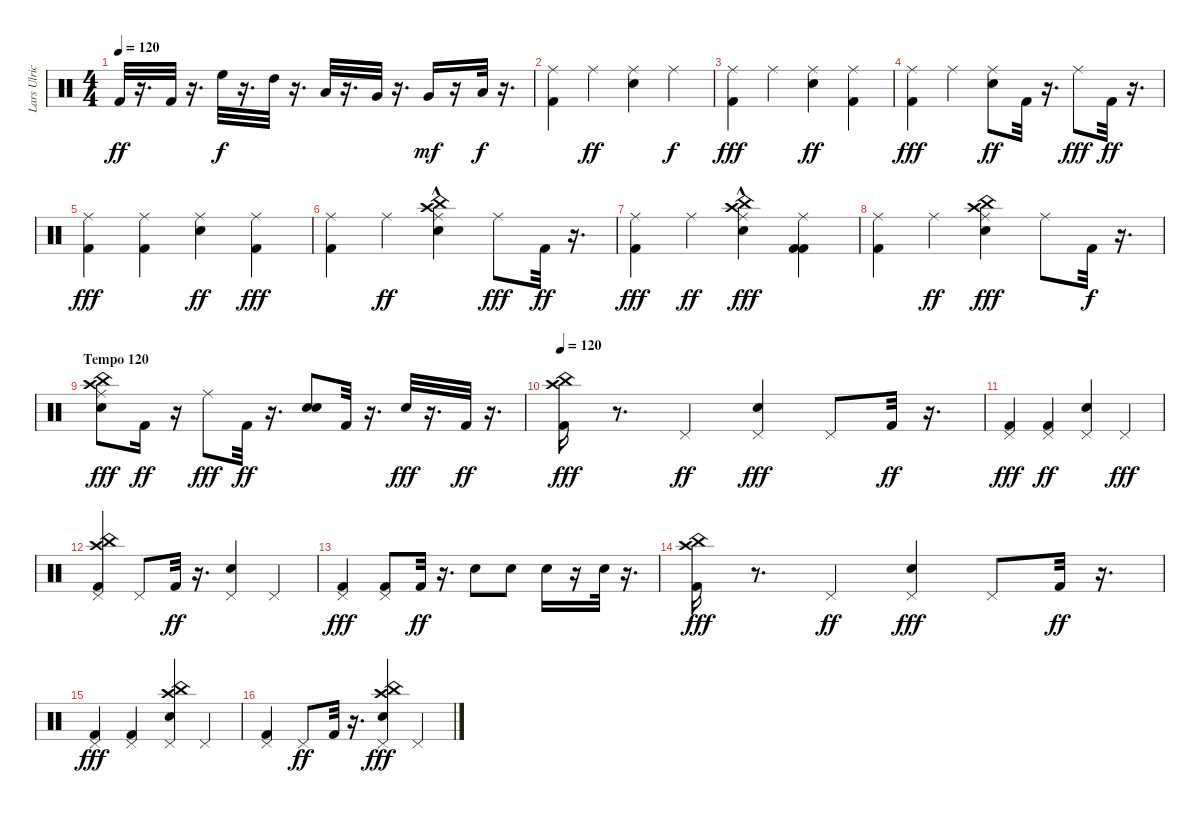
\track ("Lars Ulrich" "Lars Ulric") {instrument percussion}
\staff {score}
\articulation defaults
\ts (4 4)
\tempo 120
\clef neutral
\ks c "Kick (hit) 2".32{dy ff}
r.16{d} "Kick (hit) 2".32 r.16{d} "High Floor Tom (hit)".32{dy f} r.16{d} "High Tom (hit)".32 r.16{d} "Low Tom (hit)".32 r.16{d} "Very Low Tom (hit)".32 r.16{d} "Very Low Tom (hit)".16{dy mf} r.16 "Low Floor Tom (hit)".32{dy f} r.16{d} |
("Kick (hit) 2" "Ride (middle)").4 "Ride (middle)".4{dy ff} ("Snare (hit) 2" "Ride (middle)").4 "Ride (middle)".4{dy f} |
("Kick (hit) 2" "Ride (middle)").4{dy fff} "Ride (middle)".4 ("Snare (hit) 2" "Ride (middle)").4{dy ff} ("Kick (hit) 2" "Ride (middle)").4 |
("Kick (hit) 2" "Ride (middle)").4{dy fff} "Ride (middle)".4 ("Ride (middle)" "Snare (hit) 2").8{dy ff} "Kick (hit) 2".32 r.16{d} "Ride (middle)".8{dy fff} "Kick (hit) 2".32{dy ff} r.16{d} |
("Kick (hit) 2" "Ride (middle)").4{dy fff} ("Kick (hit) 2" "Ride (middle)").4 ("Snare (hit) 2" "Ride (middle)").4{dy ff} ("Kick (hit) 2" "Ride (middle)").4{dy fff} |
("Kick (hit) 2" "Ride (middle)").4 "Ride (middle)".4{dy ff} ("China (hit)"{hac} "Snare (hit) 2" "Ride (middle)" "Crash high (hit)").4 "Ride (middle)".8{dy fff} "Kick (hit) 2".32{dy ff} r.16{d} |
("Kick (hit) 2" "Ride (middle)").4{dy fff} "Ride (middle)".4{dy ff} ("Crash high (hit)"{hac} "China (hit)" "Snare (hit) 2" "Ride (middle)").4{dy fff} ("Kick (hit) 2" "Kick (hit) 2" "Ride (middle)").4 |
("Kick (hit) 2" "Ride (middle)").4 "Ride (middle)".4{dy ff} ("China (hit)" "Crash high (hit)" "Snare (hit) 2" "Ride (middle)").4{dy fff} "Ride (middle)".8 "Kick (hit) 2".32{dy f} r.16{d} |
\section ("" "Tempo 120")
("Snare (hit) 2" "Crash high (hit)" "China (hit)" "Ride (middle)").8{dy fff} "Kick (hit) 2".16{dy ff} r.16 "Ride (middle)".8{dy fff} "Kick (hit) 2".32{dy ff} r.16{d} ("Snare (hit) 2" "Snare (hit) 2").8 "Kick (hit) 2".32 r.16{d} "Snare (hit) 2".32{dy fff} r.16{d} "Kick (hit) 2".32{dy ff} r.16{d} |
\tempo 120
("China (hit)" "Crash high (hit)" "Kick (hit) 2").16{dy fff} r.8{d} "Pedal Hi-Hat (hit)".4{dy ff} ("Snare (hit) 2" "Pedal Hi-Hat (hit)").4{dy fff} "Pedal Hi-Hat (hit)".8 "Kick (hit) 2".32{dy ff} r.16{d} |
("Kick (hit) 2" "Pedal Hi-Hat (hit)").4{dy fff} ("Kick (hit) 2" "Pedal Hi-Hat (hit)").4{dy ff} ("Snare (hit) 2" "Pedal Hi-Hat (hit)").4 "Pedal Hi-Hat (hit)".4{dy fff} |
("Crash high (hit)" "China (hit)" "Kick (hit) 2" "Pedal Hi-Hat (hit)").4 "Pedal Hi-Hat (hit)".8 "Kick (hit) 2".32{dy ff} r.16{d} ("Pedal Hi-Hat (hit)" "Snare (hit) 2").4 "Pedal Hi-Hat (hit)".4 |
("Kick (hit) 2" "Pedal Hi-Hat (hit)").4{dy fff} ("Kick (hit) 2" "Pedal Hi-Hat (hit)").8 "Kick (hit) 2".32{dy ff} r.16{d} "Snare (hit) 2".8 "Snare (hit) 2".8 "Snare (hit) 2".16 r.16 "Snare (hit) 2".32 r.16{d} |
("China (hit)" "Crash high (hit)" "Kick (hit) 2").16{dy fff} r.8{d} "Pedal Hi-Hat (hit)".4{dy ff} ("Snare (hit) 2" "Pedal Hi-Hat (hit)").4{dy fff} "Pedal Hi-Hat (hit)".8 "Kick (hit) 2".32{dy ff} r.16{d} |
("Kick (hit) 2" "Pedal Hi-Hat (hit)").4{dy fff} ("Kick (hit) 2" "Pedal Hi-Hat (hit)").4 ("China (hit)" "Crash high (hit)" "Snare (hit) 2" "Pedal Hi-Hat (hit)").4 "Pedal Hi-Hat (hit)".4 |
("Kick (hit) 2" "Pedal Hi-Hat (hit)").4 "Pedal Hi-Hat (hit)".8{dy ff} "Kick (hit) 2".32 r.16{d} ("China (hit)" "Crash high (hit)" "Snare (hit) 2" "Pedal Hi-Hat (hit)").4{dy fff} "Pedal Hi-Hat (hit)".4
